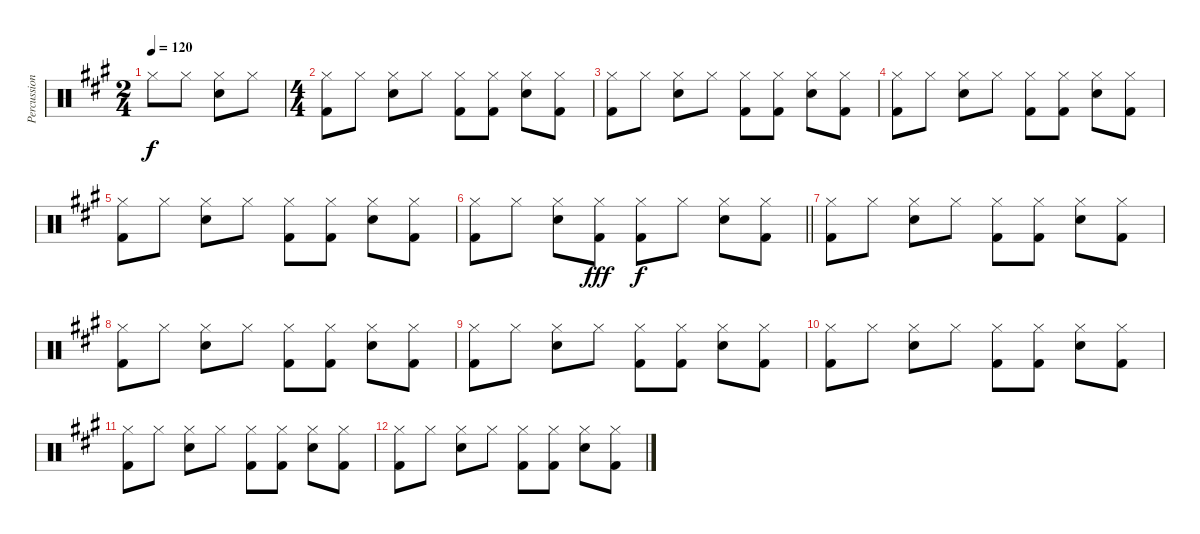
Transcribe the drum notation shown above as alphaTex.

\track ("Percussion" "Percussion") {instrument percussion}
\staff {score}
\articulation defaults
\ts (2 4)
\tempo 120
\clef neutral
\ks a "Hi-Hat (closed)".8{dy f} "Hi-Hat (closed)".8
("Hi-Hat (closed)" "Snare (hit) 2").8 "Hi-Hat (closed)".8 |
\ts (4 4)
("Hi-Hat (closed)" "Kick (hit) 2").8 "Hi-Hat (closed)".8 ("Hi-Hat (closed)" "Snare (hit) 2").8 "Hi-Hat (closed)".8 ("Hi-Hat (closed)" "Kick (hit) 2").8 ("Hi-Hat (closed)" "Kick (hit) 2").8 ("Hi-Hat (closed)" "Snare (hit) 2").8 ("Hi-Hat (closed)" "Kick (hit) 2").8 |
("Hi-Hat (closed)" "Kick (hit) 2").8 "Hi-Hat (closed)".8 ("Hi-Hat (closed)" "Snare (hit) 2").8 "Hi-Hat (closed)".8 ("Hi-Hat (closed)" "Kick (hit) 2").8 ("Hi-Hat (closed)" "Kick (hit) 2").8 ("Hi-Hat (closed)" "Snare (hit) 2").8 ("Hi-Hat (closed)" "Kick (hit) 2").8 |
("Hi-Hat (closed)" "Kick (hit) 2").8 "Hi-Hat (closed)".8 ("Hi-Hat (closed)" "Snare (hit) 2").8 "Hi-Hat (closed)".8 ("Hi-Hat (closed)" "Kick (hit) 2").8 ("Hi-Hat (closed)" "Kick (hit) 2").8 ("Hi-Hat (closed)" "Snare (hit) 2").8 ("Hi-Hat (closed)" "Kick (hit) 2").8 |
("Hi-Hat (closed)" "Kick (hit) 2").8 "Hi-Hat (closed)".8 ("Hi-Hat (closed)" "Snare (hit) 2").8 "Hi-Hat (closed)".8 ("Hi-Hat (closed)" "Kick (hit) 2").8 ("Hi-Hat (closed)" "Kick (hit) 2").8 ("Hi-Hat (closed)" "Snare (hit) 2").8 ("Hi-Hat (closed)" "Kick (hit) 2").8 |
\barLineRight lightlight
("Hi-Hat (closed)" "Kick (hit) 2").8 "Hi-Hat (closed)".8 ("Hi-Hat (closed)" "Snare (hit) 2").8 ("Hi-Hat (closed)" "Kick (hit) 2").8{dy fff} ("Hi-Hat (closed)" "Kick (hit) 2").8{dy f} "Hi-Hat (closed)".8 ("Hi-Hat (closed)" "Snare (hit) 2").8 ("Hi-Hat (closed)" "Kick (hit) 2").8 |
("Hi-Hat (closed)" "Kick (hit) 2").8 "Hi-Hat (closed)".8 ("Hi-Hat (closed)" "Snare (hit) 2").8 "Hi-Hat (closed)".8 ("Hi-Hat (closed)" "Kick (hit) 2").8 ("Hi-Hat (closed)" "Kick (hit) 2").8 ("Hi-Hat (closed)" "Snare (hit) 2").8 ("Hi-Hat (closed)" "Kick (hit) 2").8 |
("Hi-Hat (closed)" "Kick (hit) 2").8 "Hi-Hat (closed)".8 ("Hi-Hat (closed)" "Snare (hit) 2").8 "Hi-Hat (closed)".8 ("Hi-Hat (closed)" "Kick (hit) 2").8 ("Hi-Hat (closed)" "Kick (hit) 2").8 ("Hi-Hat (closed)" "Snare (hit) 2").8 ("Hi-Hat (closed)" "Kick (hit) 2").8 |
("Hi-Hat (closed)" "Kick (hit) 2").8 "Hi-Hat (closed)".8 ("Hi-Hat (closed)" "Snare (hit) 2").8 "Hi-Hat (closed)".8 ("Hi-Hat (closed)" "Kick (hit) 2").8 ("Hi-Hat (closed)" "Kick (hit) 2").8 ("Hi-Hat (closed)" "Snare (hit) 2").8 ("Hi-Hat (closed)" "Kick (hit) 2").8 |
("Hi-Hat (closed)" "Kick (hit) 2").8 "Hi-Hat (closed)".8 ("Hi-Hat (closed)" "Snare (hit) 2").8 "Hi-Hat (closed)".8 ("Hi-Hat (closed)" "Kick (hit) 2").8 ("Hi-Hat (closed)" "Kick (hit) 2").8 ("Hi-Hat (closed)" "Snare (hit) 2").8 ("Hi-Hat (closed)" "Kick (hit) 2").8 |
("Hi-Hat (closed)" "Kick (hit) 2").8 "Hi-Hat (closed)".8 ("Hi-Hat (closed)" "Snare (hit) 2").8 "Hi-Hat (closed)".8 ("Hi-Hat (closed)" "Kick (hit) 2").8 ("Hi-Hat (closed)" "Kick (hit) 2").8 ("Hi-Hat (closed)" "Snare (hit) 2").8 ("Hi-Hat (closed)" "Kick (hit) 2").8 |
("Hi-Hat (closed)" "Kick (hit) 2").8 "Hi-Hat (closed)".8 ("Hi-Hat (closed)" "Snare (hit) 2").8 "Hi-Hat (closed)".8 ("Hi-Hat (closed)" "Kick (hit) 2").8 ("Hi-Hat (closed)" "Kick (hit) 2").8 ("Hi-Hat (closed)" "Snare (hit) 2").8 ("Hi-Hat (closed)" "Kick (hit) 2").8
